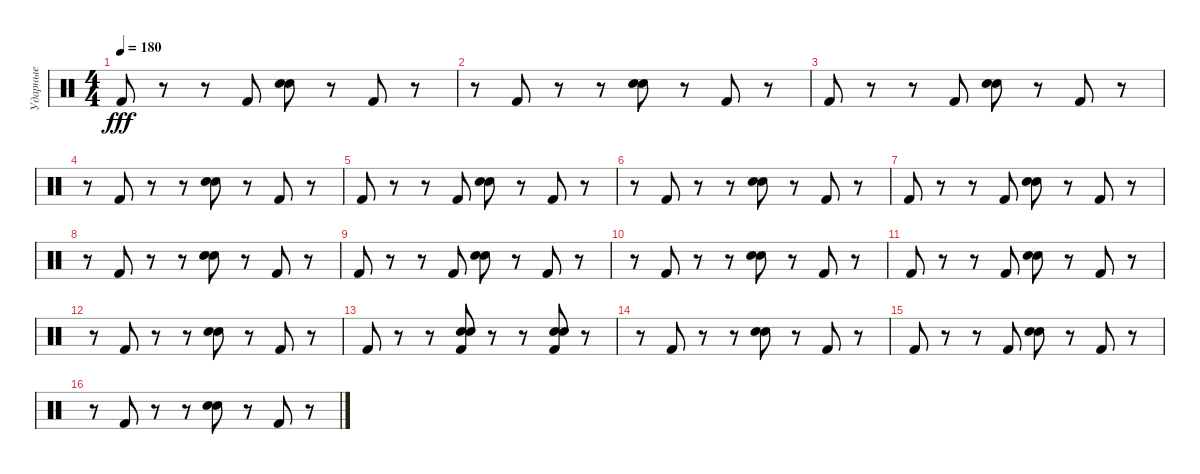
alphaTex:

\track ("Ударные" "Ударные") {instrument percussion}
\staff {score}
\articulation defaults
\ts (4 4)
\tempo 180
\clef neutral
\ks c "Kick (hit) 2".8{dy fff}
r.8 r.8 "Kick (hit) 2".8 ("Snare (hit) 2" "Electric Snare (hit)").8 r.8 "Kick (hit) 2".8 r.8 |
r.8 "Kick (hit) 2".8 r.8 r.8 ("Snare (hit) 2" "Electric Snare (hit)").8 r.8 "Kick (hit) 2".8 r.8 |
"Kick (hit) 2".8 r.8 r.8 "Kick (hit) 2".8 ("Snare (hit) 2" "Electric Snare (hit)").8 r.8 "Kick (hit) 2".8 r.8 |
r.8 "Kick (hit) 2".8 r.8 r.8 ("Snare (hit) 2" "Electric Snare (hit)").8 r.8 "Kick (hit) 2".8 r.8 |
"Kick (hit) 2".8 r.8 r.8 "Kick (hit) 2".8 ("Snare (hit) 2" "Electric Snare (hit)").8 r.8 "Kick (hit) 2".8 r.8 |
r.8 "Kick (hit) 2".8 r.8 r.8 ("Snare (hit) 2" "Electric Snare (hit)").8 r.8 "Kick (hit) 2".8 r.8 |
"Kick (hit) 2".8 r.8 r.8 "Kick (hit) 2".8 ("Snare (hit) 2" "Electric Snare (hit)").8 r.8 "Kick (hit) 2".8 r.8 |
r.8 "Kick (hit) 2".8 r.8 r.8 ("Snare (hit) 2" "Electric Snare (hit)").8 r.8 "Kick (hit) 2".8 r.8 |
"Kick (hit) 2".8 r.8 r.8 "Kick (hit) 2".8 ("Snare (hit) 2" "Electric Snare (hit)").8 r.8 "Kick (hit) 2".8 r.8 |
r.8 "Kick (hit) 2".8 r.8 r.8 ("Snare (hit) 2" "Electric Snare (hit)").8 r.8 "Kick (hit) 2".8 r.8 |
"Kick (hit) 2".8 r.8 r.8 "Kick (hit) 2".8 ("Snare (hit) 2" "Electric Snare (hit)").8 r.8 "Kick (hit) 2".8 r.8 |
r.8 "Kick (hit) 2".8 r.8 r.8 ("Snare (hit) 2" "Electric Snare (hit)").8 r.8 "Kick (hit) 2".8 r.8 |
"Kick (hit) 2".8 r.8 r.8 ("Electric Snare (hit)" "Snare (hit) 2" "Kick (hit) 2").8 r.8 r.8 ("Electric Snare (hit)" "Snare (hit) 2" "Kick (hit) 2").8 r.8 |
r.8 "Kick (hit) 2".8 r.8 r.8 ("Snare (hit) 2" "Electric Snare (hit)").8 r.8 "Kick (hit) 2".8 r.8 |
"Kick (hit) 2".8 r.8 r.8 "Kick (hit) 2".8 ("Snare (hit) 2" "Electric Snare (hit)").8 r.8 "Kick (hit) 2".8 r.8 |
r.8 "Kick (hit) 2".8 r.8 r.8 ("Snare (hit) 2" "Electric Snare (hit)").8 r.8 "Kick (hit) 2".8 r.8
